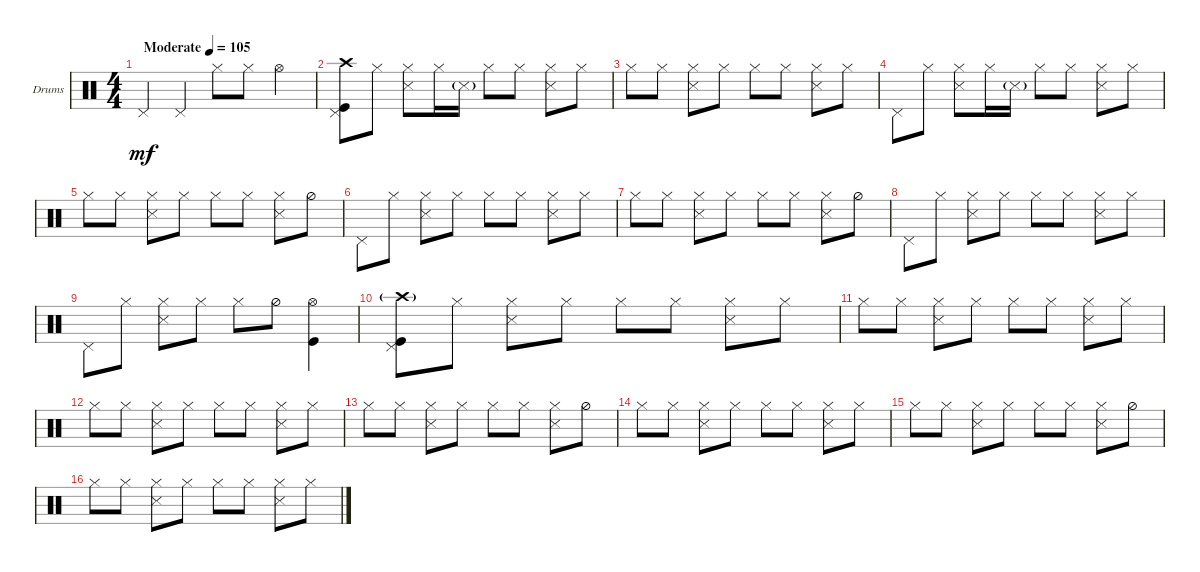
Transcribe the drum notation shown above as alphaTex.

\bracketExtendMode groupsimilarinstruments
\firstSystemTrackNameOrientation horizontal
\otherSystemsTrackNameOrientation horizontal
\track ("Алексей Мещеряков" "Drums") {instrument percussion}
\staff {score}
\articulation defaults
\ts (4 4)
\beaming (8 2 2 2 2)
\tempo (105 "Moderate")
\clef neutral
\scale
0.474178
\ks c "Pedal Hi-Hat (hit)".4{dy mf} "Pedal Hi-Hat (hit)".4 "Hi-Hat (closed)".8 "Hi-Hat (closed)".8 "Hi-Hat (open)".4
|
\scale
0.262911 ("Kick (hit)" "Crash high (hit)" "Pedal Hi-Hat (hit)").8 "Hi-Hat (closed)".8 ("Hi-Hat (closed)" "Snare (side stick) 3").8 "Hi-Hat (closed)".16 "Snare (side stick) 3"{g}.16 "Hi-Hat (closed)".8 "Hi-Hat (closed)".8 ("Hi-Hat (closed)" "Snare (side stick) 3").8 "Hi-Hat (closed)".8 |
\scale
0.262911 "Hi-Hat (closed)".8 "Hi-Hat (closed)".8 ("Hi-Hat (closed)" "Snare (side stick) 3").8 "Hi-Hat (closed)".8 "Hi-Hat (closed)".8 "Hi-Hat (closed)".8 ("Hi-Hat (closed)" "Snare (side stick) 3").8 "Hi-Hat (closed)".8 |
\scale
0.333333 "Pedal Hi-Hat (hit)".8 "Hi-Hat (closed)".8 ("Hi-Hat (closed)" "Snare (side stick) 3").8 "Hi-Hat (closed)".16 "Snare (side stick) 3"{g}.16 "Hi-Hat (closed)".8 "Hi-Hat (closed)".8 ("Hi-Hat (closed)" "Snare (side stick) 3").8 "Hi-Hat (closed)".8 |
\scale
0.333333 "Hi-Hat (closed)".8 "Hi-Hat (closed)".8 ("Hi-Hat (closed)" "Snare (side stick) 3").8 "Hi-Hat (closed)".8 "Hi-Hat (closed)".8 "Hi-Hat (closed)".8 ("Hi-Hat (closed)" "Snare (side stick) 3").8 "Hi-Hat (half)".8 |
\scale
0.333333 "Pedal Hi-Hat (hit)".8 "Hi-Hat (closed)".8 ("Hi-Hat (closed)" "Snare (side stick) 3").8 "Hi-Hat (closed)".8 "Hi-Hat (closed)".8 "Hi-Hat (closed)".8 ("Hi-Hat (closed)" "Snare (side stick) 3").8 "Hi-Hat (closed)".8 |
\scale
0.333333 "Hi-Hat (closed)".8 "Hi-Hat (closed)".8 ("Hi-Hat (closed)" "Snare (side stick) 3").8 "Hi-Hat (closed)".8 "Hi-Hat (closed)".8 "Hi-Hat (closed)".8 ("Hi-Hat (closed)" "Snare (side stick) 3").8 "Hi-Hat (half)".8 |
\scale
0.333333 "Pedal Hi-Hat (hit)".8 "Hi-Hat (closed)".8 ("Hi-Hat (closed)" "Snare (side stick) 3").8 "Hi-Hat (closed)".8 "Hi-Hat (closed)".8 "Hi-Hat (closed)".8 ("Hi-Hat (closed)" "Snare (side stick) 3").8 "Hi-Hat (closed)".8 |
\scale
0.333333 "Pedal Hi-Hat (hit)".8 "Hi-Hat (closed)".8 ("Hi-Hat (closed)" "Snare (side stick) 3").8 "Hi-Hat (closed)".8 "Hi-Hat (closed)".8 "Hi-Hat (half)".8 ("Hi-Hat (open)" "Kick (hit)").4 |
\scale
0.333333 ("Kick (hit)" "Pedal Hi-Hat (hit)" "Crash high (hit)"{g}).8 "Hi-Hat (closed)".8 ("Hi-Hat (closed)" "Snare (side stick) 3").8 "Hi-Hat (closed)".8 "Hi-Hat (closed)".8 "Hi-Hat (closed)".8 ("Hi-Hat (closed)" "Snare (side stick) 3").8 "Hi-Hat (closed)".8 |
\scale
0.333333 "Hi-Hat (closed)".8 "Hi-Hat (closed)".8 ("Hi-Hat (closed)" "Snare (side stick) 3").8 "Hi-Hat (closed)".8 "Hi-Hat (closed)".8 "Hi-Hat (closed)".8 ("Hi-Hat (closed)" "Snare (side stick) 3").8 "Hi-Hat (closed)".8 |
\scale
0.333333 "Hi-Hat (closed)".8 "Hi-Hat (closed)".8 ("Hi-Hat (closed)" "Snare (side stick) 3").8 "Hi-Hat (closed)".8 "Hi-Hat (closed)".8 "Hi-Hat (closed)".8 ("Hi-Hat (closed)" "Snare (side stick) 3").8 "Hi-Hat (closed)".8 |
\scale
0.333333 "Hi-Hat (closed)".8 "Hi-Hat (closed)".8 ("Hi-Hat (closed)" "Snare (side stick) 3").8 "Hi-Hat (closed)".8 "Hi-Hat (closed)".8 "Hi-Hat (closed)".8 ("Hi-Hat (closed)" "Snare (side stick) 3").8 "Hi-Hat (half)".8 |
\scale
0.333333 "Hi-Hat (closed)".8 "Hi-Hat (closed)".8 ("Hi-Hat (closed)" "Snare (side stick) 3").8 "Hi-Hat (closed)".8 "Hi-Hat (closed)".8 "Hi-Hat (closed)".8 ("Hi-Hat (closed)" "Snare (side stick) 3").8 "Hi-Hat (closed)".8 |
\scale
0.333333 "Hi-Hat (closed)".8 "Hi-Hat (closed)".8 ("Hi-Hat (closed)" "Snare (side stick) 3").8 "Hi-Hat (closed)".8 "Hi-Hat (closed)".8 "Hi-Hat (closed)".8 ("Hi-Hat (closed)" "Snare (side stick) 3").8 "Hi-Hat (half)".8 |
"Hi-Hat (closed)".8 "Hi-Hat (closed)".8 ("Hi-Hat (closed)" "Snare (side stick) 3").8 "Hi-Hat (closed)".8 "Hi-Hat (closed)".8 "Hi-Hat (closed)".8 ("Hi-Hat (closed)" "Snare (side stick) 3").8 "Hi-Hat (closed)".8
